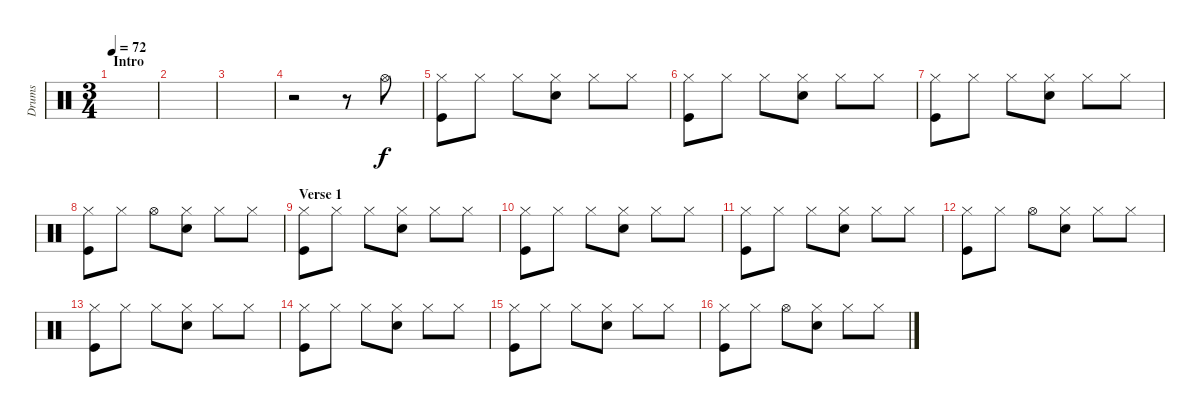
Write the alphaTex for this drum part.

\track ("Drums" "Drums") {instrument percussion}
\staff {score}
\articulation defaults
\ts (3 4)
\section ("" "Intro")
\tempo 72
\clef neutral
\ks c
|
|
|
r.2 r.8 "Hi-Hat (open)".8 |
("Hi-Hat (closed)" "Kick (hit)").8 "Hi-Hat (closed)".8 "Hi-Hat (closed)".8 ("Hi-Hat (closed)" "Snare (hit) 2").8 "Hi-Hat (closed)".8 "Hi-Hat (closed)".8 |
("Hi-Hat (closed)" "Kick (hit)").8 "Hi-Hat (closed)".8 "Hi-Hat (closed)".8 ("Hi-Hat (closed)" "Snare (hit) 2").8 "Hi-Hat (closed)".8 "Hi-Hat (closed)".8 |
("Hi-Hat (closed)" "Kick (hit)").8 "Hi-Hat (closed)".8 "Hi-Hat (closed)".8 ("Hi-Hat (closed)" "Snare (hit) 2").8 "Hi-Hat (closed)".8 "Hi-Hat (closed)".8 |
("Hi-Hat (closed)" "Kick (hit)").8 "Hi-Hat (closed)".8 "Hi-Hat (open)".8 ("Hi-Hat (closed)" "Snare (hit) 2").8 "Hi-Hat (closed)".8 "Hi-Hat (closed)".8 |
\section ("" "Verse 1")
("Hi-Hat (closed)" "Kick (hit)").8 "Hi-Hat (closed)".8 "Hi-Hat (closed)".8 ("Hi-Hat (closed)" "Snare (hit) 2").8 "Hi-Hat (closed)".8 "Hi-Hat (closed)".8 |
("Hi-Hat (closed)" "Kick (hit)").8 "Hi-Hat (closed)".8 "Hi-Hat (closed)".8 ("Hi-Hat (closed)" "Snare (hit) 2").8 "Hi-Hat (closed)".8 "Hi-Hat (closed)".8 |
("Hi-Hat (closed)" "Kick (hit)").8 "Hi-Hat (closed)".8 "Hi-Hat (closed)".8 ("Hi-Hat (closed)" "Snare (hit) 2").8 "Hi-Hat (closed)".8 "Hi-Hat (closed)".8 |
("Hi-Hat (closed)" "Kick (hit)").8 "Hi-Hat (closed)".8 "Hi-Hat (open)".8 ("Hi-Hat (closed)" "Snare (hit) 2").8 "Hi-Hat (closed)".8 "Hi-Hat (closed)".8 |
("Hi-Hat (closed)" "Kick (hit)").8 "Hi-Hat (closed)".8 "Hi-Hat (closed)".8 ("Hi-Hat (closed)" "Snare (hit) 2").8 "Hi-Hat (closed)".8 "Hi-Hat (closed)".8 |
("Hi-Hat (closed)" "Kick (hit)").8 "Hi-Hat (closed)".8 "Hi-Hat (closed)".8 ("Hi-Hat (closed)" "Snare (hit) 2").8 "Hi-Hat (closed)".8 "Hi-Hat (closed)".8 |
("Hi-Hat (closed)" "Kick (hit)").8 "Hi-Hat (closed)".8 "Hi-Hat (closed)".8 ("Hi-Hat (closed)" "Snare (hit) 2").8 "Hi-Hat (closed)".8 "Hi-Hat (closed)".8 |
("Hi-Hat (closed)" "Kick (hit)").8 "Hi-Hat (closed)".8 "Hi-Hat (open)".8 ("Hi-Hat (closed)" "Snare (hit) 2").8 "Hi-Hat (closed)".8 "Hi-Hat (closed)".8
